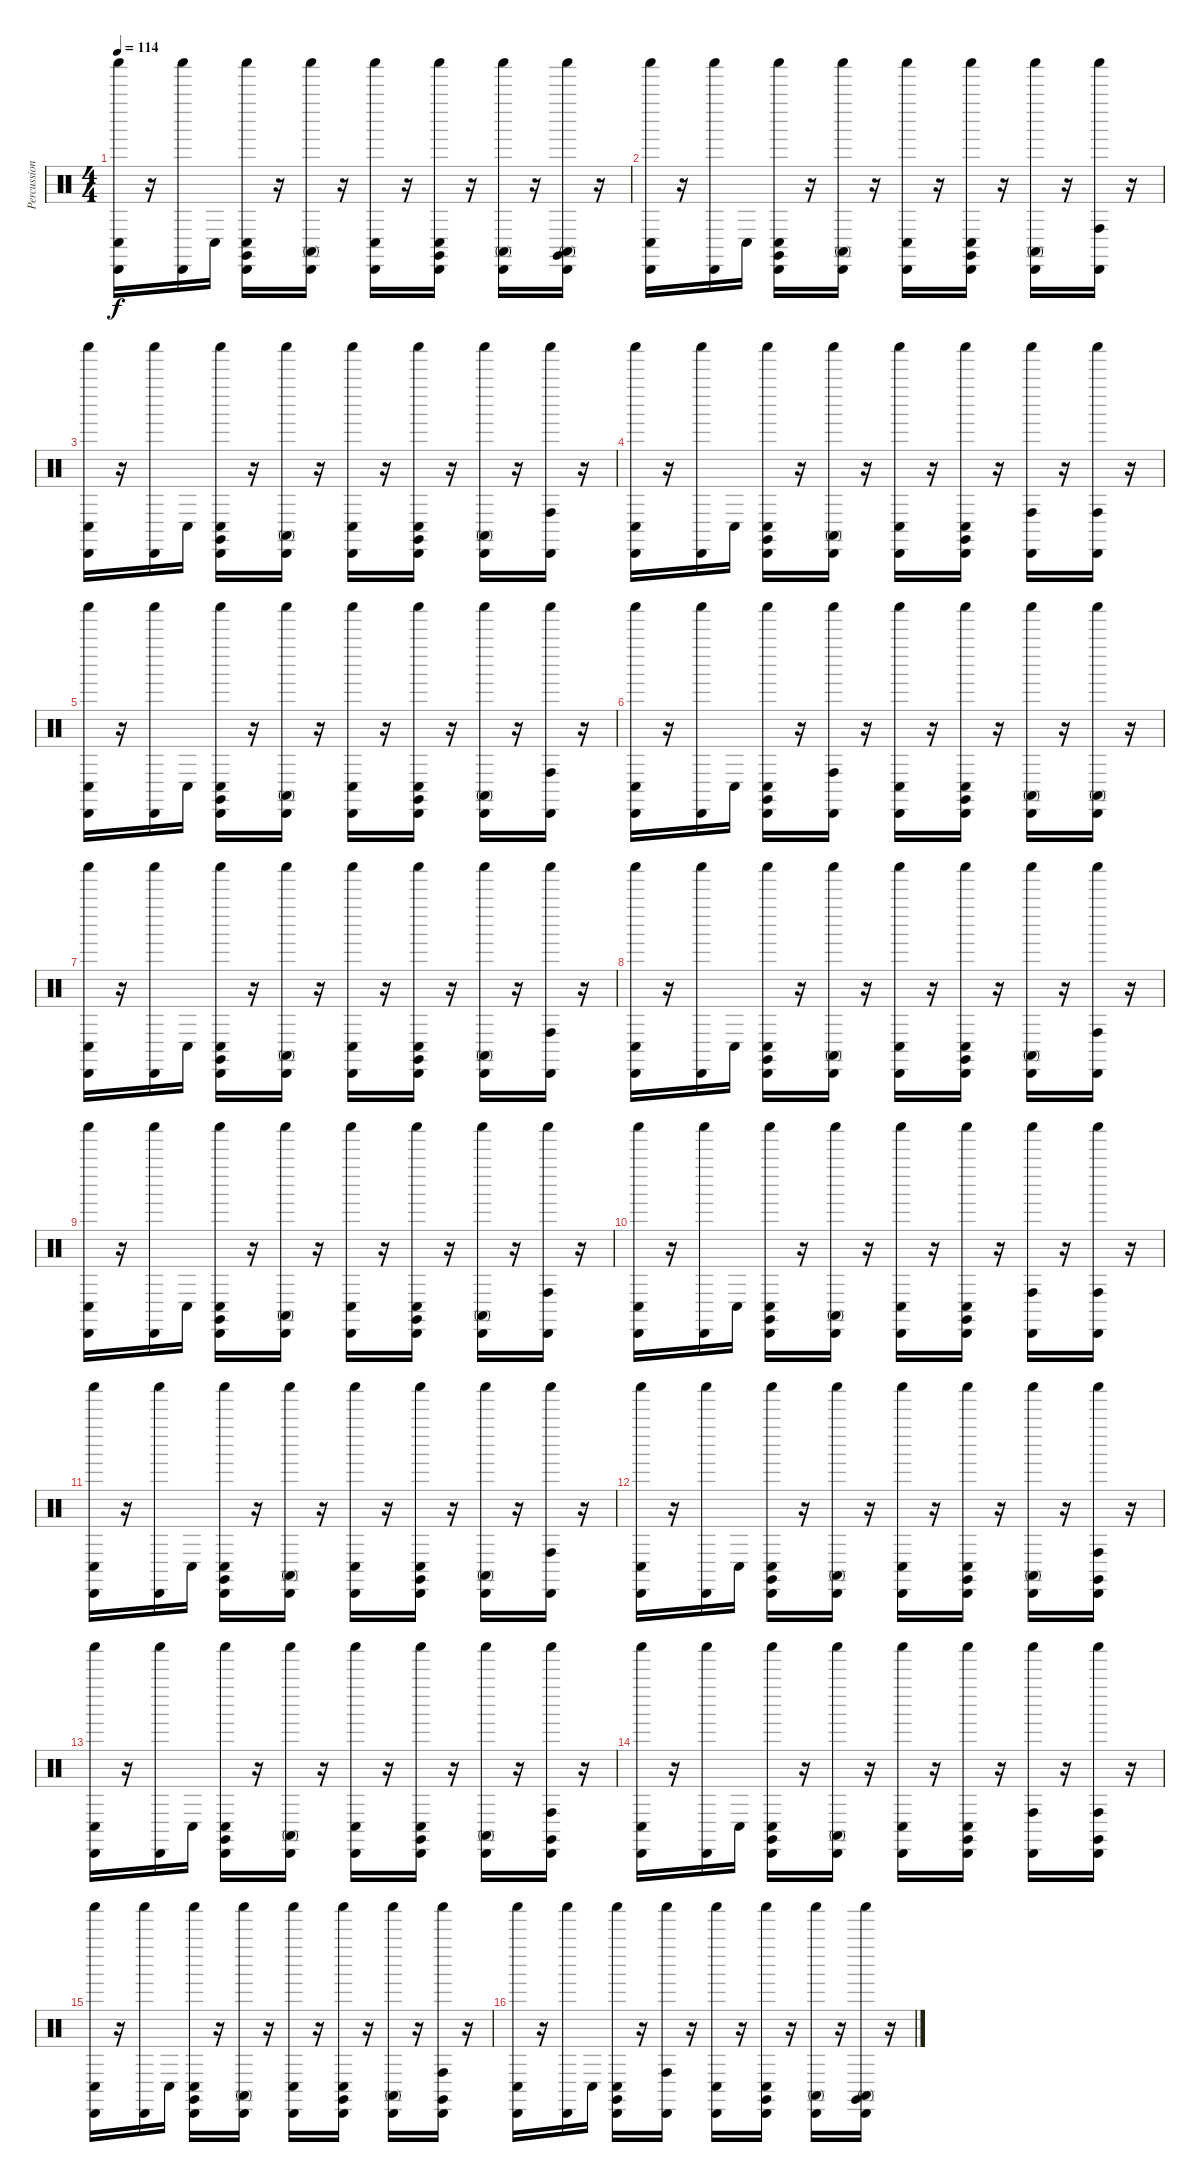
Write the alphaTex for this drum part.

\track ("Percussion (Std Set)" "Percussion") {instrument percussion}
\staff {score}
\articulation defaults
\ts (4 4)
\tempo 114
\clef neutral
\ks c
("Shaker (hit)" "Conga low (hit)" "Cabasa (hit)").16{dy f} r.16 ("Cabasa (hit)" "Shaker (hit)").16 "Conga low (hit)".16 ("Claves (hit)" "Cabasa (hit)" "Conga low (hit)" "Shaker (hit)").16 r.16 ("Shaker (hit)" "Cabasa (hit)" "Conga high (mute)").16 r.16 ("Cabasa (hit)" "Conga low (hit)" "Shaker (hit)").16 r.16 ("Conga low (hit)" "Claves (hit)" "Cabasa (hit)" "Shaker (hit)").16 r.16 ("Shaker (hit)" "Cabasa (hit)" "Conga high (mute)").16 r.16 ("Conga high (mute)" "Shaker (hit)" "Cabasa (hit)" "Claves (hit)").16 r.16 |
("Conga low (hit)" "Cabasa (hit)" "Shaker (hit)").16 r.16 ("Shaker (hit)" "Cabasa (hit)").16 "Conga low (hit)".16 ("Shaker (hit)" "Cabasa (hit)" "Claves (hit)" "Conga low (hit)").16 r.16 ("Conga high (mute)" "Cabasa (hit)" "Shaker (hit)").16 r.16 ("Conga low (hit)" "Shaker (hit)" "Cabasa (hit)").16 r.16 ("Conga low (hit)" "Cabasa (hit)" "Shaker (hit)" "Claves (hit)").16 r.16 ("Shaker (hit)" "Cabasa (hit)" "Conga high (mute)").16 r.16 ("Shaker (hit)" "Cabasa (hit)" "Conga high (hit)").16 r.16 |
("Cabasa (hit)" "Shaker (hit)" "Conga low (hit)").16 r.16 ("Shaker (hit)" "Cabasa (hit)").16 "Conga low (hit)".16 ("Conga low (hit)" "Cabasa (hit)" "Claves (hit)" "Shaker (hit)").16 r.16 ("Cabasa (hit)" "Conga high (mute)" "Shaker (hit)").16 r.16 ("Shaker (hit)" "Conga low (hit)" "Cabasa (hit)").16 r.16 ("Shaker (hit)" "Claves (hit)" "Conga low (hit)" "Cabasa (hit)").16 r.16 ("Conga high (mute)" "Cabasa (hit)" "Shaker (hit)").16 r.16 ("Shaker (hit)" "Cabasa (hit)" "Conga high (hit)").16 r.16 |
("Shaker (hit)" "Conga low (hit)" "Cabasa (hit)").16 r.16 ("Cabasa (hit)" "Shaker (hit)").16 "Conga low (hit)".16 ("Cabasa (hit)" "Shaker (hit)" "Conga low (hit)" "Claves (hit)").16 r.16 ("Conga high (mute)" "Shaker (hit)" "Cabasa (hit)").16 r.16 ("Conga low (hit)" "Cabasa (hit)" "Shaker (hit)").16 r.16 ("Cabasa (hit)" "Shaker (hit)" "Conga low (hit)" "Claves (hit)").16 r.16 ("Conga high (hit)" "Shaker (hit)" "Cabasa (hit)").16 r.16 ("Shaker (hit)" "Conga high (hit)" "Cabasa (hit)").16 r.16 |
("Conga low (hit)" "Shaker (hit)" "Cabasa (hit)").16 r.16 ("Cabasa (hit)" "Shaker (hit)").16 "Conga low (hit)".16 ("Conga low (hit)" "Cabasa (hit)" "Claves (hit)" "Shaker (hit)").16 r.16 ("Conga high (mute)" "Shaker (hit)" "Cabasa (hit)").16 r.16 ("Shaker (hit)" "Conga low (hit)" "Cabasa (hit)").16 r.16 ("Cabasa (hit)" "Claves (hit)" "Conga low (hit)" "Shaker (hit)").16 r.16 ("Conga high (mute)" "Shaker (hit)" "Cabasa (hit)").16 r.16 ("Shaker (hit)" "Cabasa (hit)" "Conga high (hit)").16 r.16 |
("Conga low (hit)" "Cabasa (hit)" "Shaker (hit)").16 r.16 ("Cabasa (hit)" "Shaker (hit)").16 "Conga low (hit)".16 ("Claves (hit)" "Shaker (hit)" "Cabasa (hit)" "Conga low (hit)").16 r.16 ("Conga high (hit)" "Cabasa (hit)" "Shaker (hit)").16 r.16 ("Cabasa (hit)" "Conga low (hit)" "Shaker (hit)").16 r.16 ("Shaker (hit)" "Conga low (hit)" "Claves (hit)" "Cabasa (hit)").16 r.16 ("Shaker (hit)" "Cabasa (hit)" "Conga high (mute)").16 r.16 ("Conga high (mute)" "Cabasa (hit)" "Shaker (hit)").16 r.16 |
("Conga low (hit)" "Shaker (hit)" "Cabasa (hit)").16 r.16 ("Shaker (hit)" "Cabasa (hit)").16 "Conga low (hit)".16 ("Cabasa (hit)" "Claves (hit)" "Conga low (hit)" "Shaker (hit)").16 r.16 ("Shaker (hit)" "Conga high (mute)" "Cabasa (hit)").16 r.16 ("Conga low (hit)" "Shaker (hit)" "Cabasa (hit)").16 r.16 ("Claves (hit)" "Cabasa (hit)" "Conga low (hit)" "Shaker (hit)").16 r.16 ("Conga high (mute)" "Cabasa (hit)" "Shaker (hit)").16 r.16 ("Cabasa (hit)" "Conga high (hit)" "Shaker (hit)").16 r.16 |
("Shaker (hit)" "Conga low (hit)" "Cabasa (hit)").16 r.16 ("Cabasa (hit)" "Shaker (hit)").16 "Conga low (hit)".16 ("Cabasa (hit)" "Conga low (hit)" "Shaker (hit)" "Claves (hit)").16 r.16 ("Shaker (hit)" "Conga high (mute)" "Cabasa (hit)").16 r.16 ("Shaker (hit)" "Conga low (hit)" "Cabasa (hit)").16 r.16 ("Conga low (hit)" "Cabasa (hit)" "Claves (hit)" "Shaker (hit)").16 r.16 ("Conga high (mute)" "Cabasa (hit)" "Shaker (hit)").16 r.16 ("Cabasa (hit)" "Shaker (hit)" "Conga high (hit)").16 r.16 |
("Shaker (hit)" "Cabasa (hit)" "Conga low (hit)").16 r.16 ("Shaker (hit)" "Cabasa (hit)").16 "Conga low (hit)".16 ("Cabasa (hit)" "Conga low (hit)" "Shaker (hit)" "Claves (hit)").16 r.16 ("Shaker (hit)" "Conga high (mute)" "Cabasa (hit)").16 r.16 ("Cabasa (hit)" "Conga low (hit)" "Shaker (hit)").16 r.16 ("Conga low (hit)" "Claves (hit)" "Shaker (hit)" "Cabasa (hit)").16 r.16 ("Shaker (hit)" "Cabasa (hit)" "Conga high (mute)").16 r.16 ("Shaker (hit)" "Cabasa (hit)" "Conga high (hit)").16 r.16 |
("Conga low (hit)" "Cabasa (hit)" "Shaker (hit)").16 r.16 ("Shaker (hit)" "Cabasa (hit)").16 "Conga low (hit)".16 ("Shaker (hit)" "Conga low (hit)" "Cabasa (hit)" "Claves (hit)").16 r.16 ("Cabasa (hit)" "Conga high (mute)" "Shaker (hit)").16 r.16 ("Shaker (hit)" "Cabasa (hit)" "Conga low (hit)").16 r.16 ("Claves (hit)" "Cabasa (hit)" "Conga low (hit)" "Shaker (hit)").16 r.16 ("Cabasa (hit)" "Conga high (hit)" "Shaker (hit)").16 r.16 ("Cabasa (hit)" "Shaker (hit)" "Conga high (hit)").16 r.16 |
("Shaker (hit)" "Conga low (hit)" "Cabasa (hit)").16 r.16 ("Cabasa (hit)" "Shaker (hit)").16 "Conga low (hit)".16 ("Cabasa (hit)" "Conga low (hit)" "Shaker (hit)" "Claves (hit)").16 r.16 ("Cabasa (hit)" "Shaker (hit)" "Conga high (mute)").16 r.16 ("Cabasa (hit)" "Shaker (hit)" "Conga low (hit)").16 r.16 ("Conga low (hit)" "Claves (hit)" "Shaker (hit)" "Cabasa (hit)").16 r.16 ("Cabasa (hit)" "Conga high (mute)" "Shaker (hit)").16 r.16 ("Shaker (hit)" "Conga high (hit)" "Cabasa (hit)").16 r.16 |
("Shaker (hit)" "Cabasa (hit)" "Conga low (hit)").16 r.16 ("Cabasa (hit)" "Shaker (hit)").16 "Conga low (hit)".16 ("Shaker (hit)" "Cabasa (hit)" "Conga low (hit)" "Claves (hit)").16 r.16 ("Cabasa (hit)" "Conga high (mute)" "Shaker (hit)").16 r.16 ("Conga low (hit)" "Cabasa (hit)" "Shaker (hit)").16 r.16 ("Conga low (hit)" "Shaker (hit)" "Cabasa (hit)" "Claves (hit)").16 r.16 ("Conga high (mute)" "Shaker (hit)" "Cabasa (hit)").16 r.16 ("Conga high (hit)" "Claves (hit)" "Shaker (hit)" "Cabasa (hit)").16 r.16 |
("Conga low (hit)" "Shaker (hit)" "Cabasa (hit)").16 r.16 ("Cabasa (hit)" "Shaker (hit)").16 "Conga low (hit)".16 ("Cabasa (hit)" "Conga low (hit)" "Claves (hit)" "Shaker (hit)").16 r.16 ("Cabasa (hit)" "Conga high (mute)" "Shaker (hit)").16 r.16 ("Cabasa (hit)" "Shaker (hit)" "Conga low (hit)").16 r.16 ("Shaker (hit)" "Conga low (hit)" "Claves (hit)" "Cabasa (hit)").16 r.16 ("Cabasa (hit)" "Shaker (hit)" "Conga high (mute)").16 r.16 ("Cabasa (hit)" "Shaker (hit)" "Claves (hit)" "Conga high (hit)").16 r.16 |
("Shaker (hit)" "Conga low (hit)" "Cabasa (hit)").16 r.16 ("Cabasa (hit)" "Shaker (hit)").16 "Conga low (hit)".16 ("Cabasa (hit)" "Shaker (hit)" "Conga low (hit)" "Claves (hit)").16 r.16 ("Cabasa (hit)" "Conga high (mute)" "Shaker (hit)").16 r.16 ("Cabasa (hit)" "Conga low (hit)" "Shaker (hit)").16 r.16 ("Claves (hit)" "Shaker (hit)" "Cabasa (hit)" "Conga low (hit)").16 r.16 ("Cabasa (hit)" "Conga high (hit)" "Shaker (hit)").16 r.16 ("Claves (hit)" "Conga high (hit)" "Cabasa (hit)" "Shaker (hit)").16 r.16 |
("Shaker (hit)" "Cabasa (hit)" "Conga low (hit)").16 r.16 ("Shaker (hit)" "Cabasa (hit)").16 "Conga low (hit)".16 ("Cabasa (hit)" "Claves (hit)" "Conga low (hit)" "Shaker (hit)").16 r.16 ("Shaker (hit)" "Conga high (mute)" "Cabasa (hit)").16 r.16 ("Cabasa (hit)" "Shaker (hit)" "Conga low (hit)").16 r.16 ("Claves (hit)" "Cabasa (hit)" "Shaker (hit)" "Conga low (hit)").16 r.16 ("Cabasa (hit)" "Shaker (hit)" "Conga high (mute)").16 r.16 ("Shaker (hit)" "Claves (hit)" "Conga high (hit)" "Cabasa (hit)").16 r.16 |
("Cabasa (hit)" "Conga low (hit)" "Shaker (hit)").16 r.16 ("Cabasa (hit)" "Shaker (hit)").16 "Conga low (hit)".16 ("Claves (hit)" "Cabasa (hit)" "Conga low (hit)" "Shaker (hit)").16 r.16 ("Conga high (hit)" "Cabasa (hit)" "Shaker (hit)").16 r.16 ("Conga low (hit)" "Shaker (hit)" "Cabasa (hit)").16 r.16 ("Shaker (hit)" "Claves (hit)" "Cabasa (hit)" "Conga low (hit)").16 r.16 ("Shaker (hit)" "Cabasa (hit)" "Conga high (mute)").16 r.16 ("Conga high (mute)" "Cabasa (hit)" "Claves (hit)" "Shaker (hit)").16 r.16
